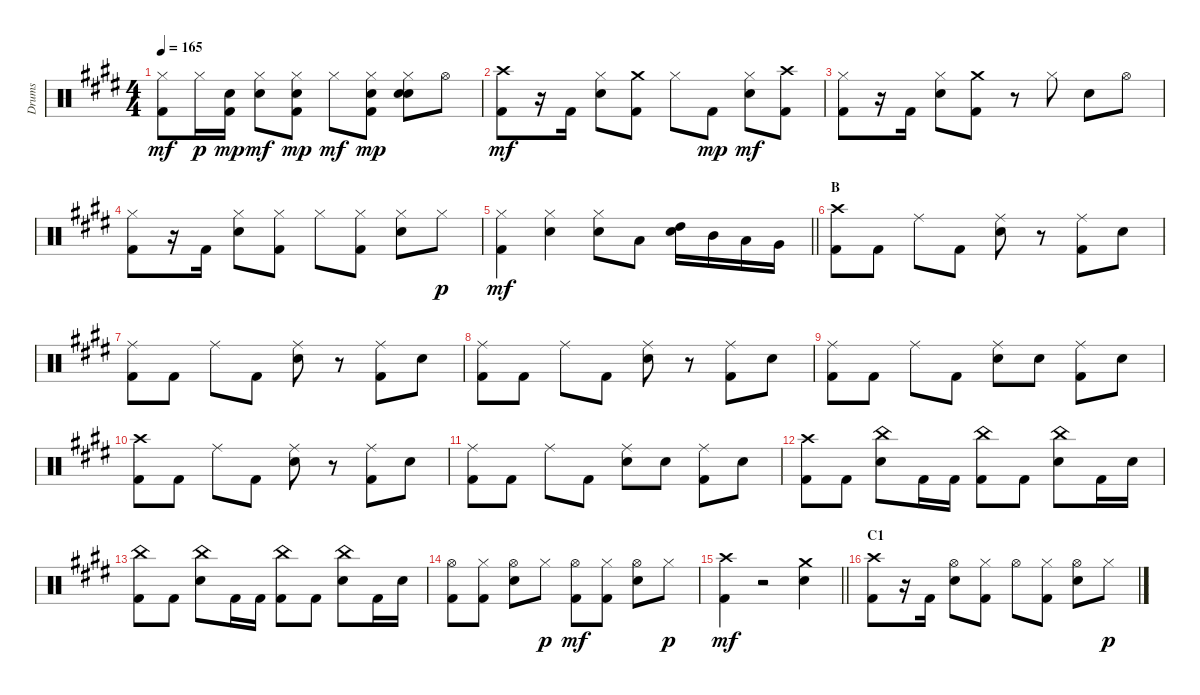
\track ("Drums" "Drums") {instrument percussion}
\staff {score}
\articulation defaults
\ts (4 4)
\tempo 165
\clef neutral
\ks e
("Hi-Hat (closed)" "Kick (hit) 2").8{dy mf} "Hi-Hat (closed)".16{dy p} ("Kick (hit) 2" "Hand Clap (hit)").16{dy mp} ("Hi-Hat (closed)" "Electric Snare (hit)").8{dy mf} ("Hi-Hat (closed)" "Kick (hit) 2" "Hand Clap (hit)").8{dy mp} "Hi-Hat (closed)".8{dy mf} ("Hi-Hat (closed)" "Kick (hit) 2" "Hand Clap (hit)").8{dy mp} ("Hi-Hat (closed)" "Electric Snare (hit)" "Hand Clap (hit)").8 "Hi-Hat (open)".8 |
("Crash high (hit)" "Kick (hit) 2").8{dy mf} r.16 "Kick (hit) 2".16 ("Hi-Hat (closed)" "Electric Snare (hit)").8 ("Crash medium (hit)" "Kick (hit) 2").8 "Hi-Hat (closed)".8 "Kick (hit) 2".8{dy mp} ("Hi-Hat (closed)" "Electric Snare (hit)").8{dy mf} ("Crash high (hit)" "Kick (hit) 2").8 |
("Hi-Hat (closed)" "Kick (hit) 2").8 r.16 "Kick (hit) 2".16 ("Hi-Hat (closed)" "Electric Snare (hit)").8 ("Crash medium (hit)" "Kick (hit) 2").8 r.8 "Hi-Hat (closed)".8 "Electric Snare (hit)".8 "Hi-Hat (open)".8 |
("Hi-Hat (closed)" "Kick (hit) 2").8 r.16 "Kick (hit) 2".16 ("Hi-Hat (closed)" "Electric Snare (hit)").8 ("Hi-Hat (closed)" "Kick (hit) 2").8 "Hi-Hat (closed)".8 ("Hi-Hat (closed)" "Kick (hit) 2").8 ("Hi-Hat (closed)" "Electric Snare (hit)").8 "Hi-Hat (closed)".8{dy p} |
\barLineRight lightlight
("Hi-Hat (closed)" "Kick (hit) 2").4{dy mf} ("Hi-Hat (closed)" "Electric Snare (hit)").4 ("Hi-Hat (closed)" "Electric Snare (hit)").8 "Low Tom (hit)".8 ("High Tom (hit)" "Electric Snare (hit)").16 "Mid Tom (hit)".16 "Low Tom (hit)".16 "Very Low Tom (hit)".16 |
\section ("" "B")
("Crash high (hit)" "Kick (hit) 2").8 "Kick (hit) 2".8 "Ride (middle)".8 "Kick (hit) 2".8 ("Ride (middle)" "Electric Snare (hit)").8 r.8 ("Ride (middle)" "Kick (hit) 2").8 "Electric Snare (hit)".8 |
("Ride (middle)" "Kick (hit) 2").8 "Kick (hit) 2".8 "Ride (middle)".8 "Kick (hit) 2".8 ("Ride (middle)" "Electric Snare (hit)").8 r.8 ("Ride (middle)" "Kick (hit) 2").8 "Electric Snare (hit)".8 |
("Ride (middle)" "Kick (hit) 2").8 "Kick (hit) 2".8 "Ride (middle)".8 "Kick (hit) 2".8 ("Ride (middle)" "Electric Snare (hit)").8 r.8 ("Ride (middle)" "Kick (hit) 2").8 "Electric Snare (hit)".8 |
("Ride (middle)" "Kick (hit) 2").8 "Kick (hit) 2".8 "Ride (middle)".8 "Kick (hit) 2".8 ("Ride (middle)" "Electric Snare (hit)").8 "Electric Snare (hit)".8 ("Ride (middle)" "Kick (hit) 2").8 "Electric Snare (hit)".8 |
("Crash high (hit)" "Kick (hit) 2").8 "Kick (hit) 2".8 "Ride (middle)".8 "Kick (hit) 2".8 ("Ride (middle)" "Electric Snare (hit)").8 r.8 ("Ride (middle)" "Kick (hit) 2").8 "Electric Snare (hit)".8 |
("Ride (middle)" "Kick (hit) 2").8 "Kick (hit) 2".8 "Ride (middle)".8 "Kick (hit) 2".8 ("Ride (middle)" "Electric Snare (hit)").8 "Electric Snare (hit)".8 ("Ride (middle)" "Kick (hit) 2").8 "Electric Snare (hit)".8 |
("Crash high (hit)" "Kick (hit) 2").8 "Kick (hit) 2".8 ("China (hit)" "Electric Snare (hit)").8 "Kick (hit) 2".16 "Kick (hit) 2".16 ("China (hit)" "Kick (hit) 2").8 "Kick (hit) 2".8 ("China (hit)" "Electric Snare (hit)").8 "Kick (hit) 2".16 "Electric Snare (hit)".16 |
("China (hit)" "Kick (hit) 2").8 "Kick (hit) 2".8 ("China (hit)" "Electric Snare (hit)").8 "Kick (hit) 2".16 "Kick (hit) 2".16 ("China (hit)" "Kick (hit) 2").8 "Kick (hit) 2".8 ("China (hit)" "Electric Snare (hit)").8 "Kick (hit) 2".16 "Electric Snare (hit)".16 |
("Hi-Hat (open)" "Kick (hit) 2").8 ("Hi-Hat (closed)" "Kick (hit) 2").8 ("Hi-Hat (open)" "Electric Snare (hit)").8 "Hi-Hat (closed)".8{dy p} ("Hi-Hat (open)" "Kick (hit) 2").8{dy mf} ("Hi-Hat (closed)" "Kick (hit) 2").8 ("Hi-Hat (open)" "Electric Snare (hit)").8 "Hi-Hat (closed)".8{dy p} |
\barLineRight lightlight
("Crash high (hit)" "Kick (hit) 2").4{dy mf} r.2 ("Crash medium (hit)" "Electric Snare (hit)").4 |
\section ("" "C1")
("Crash high (hit)" "Kick (hit) 2").8 r.16 "Kick (hit) 2".16 ("Hi-Hat (open)" "Electric Snare (hit)").8 ("Hi-Hat (closed)" "Kick (hit) 2").8 "Hi-Hat (open)".8 ("Hi-Hat (closed)" "Kick (hit) 2").8 ("Hi-Hat (open)" "Electric Snare (hit)").8 "Hi-Hat (closed)".8{dy p}
